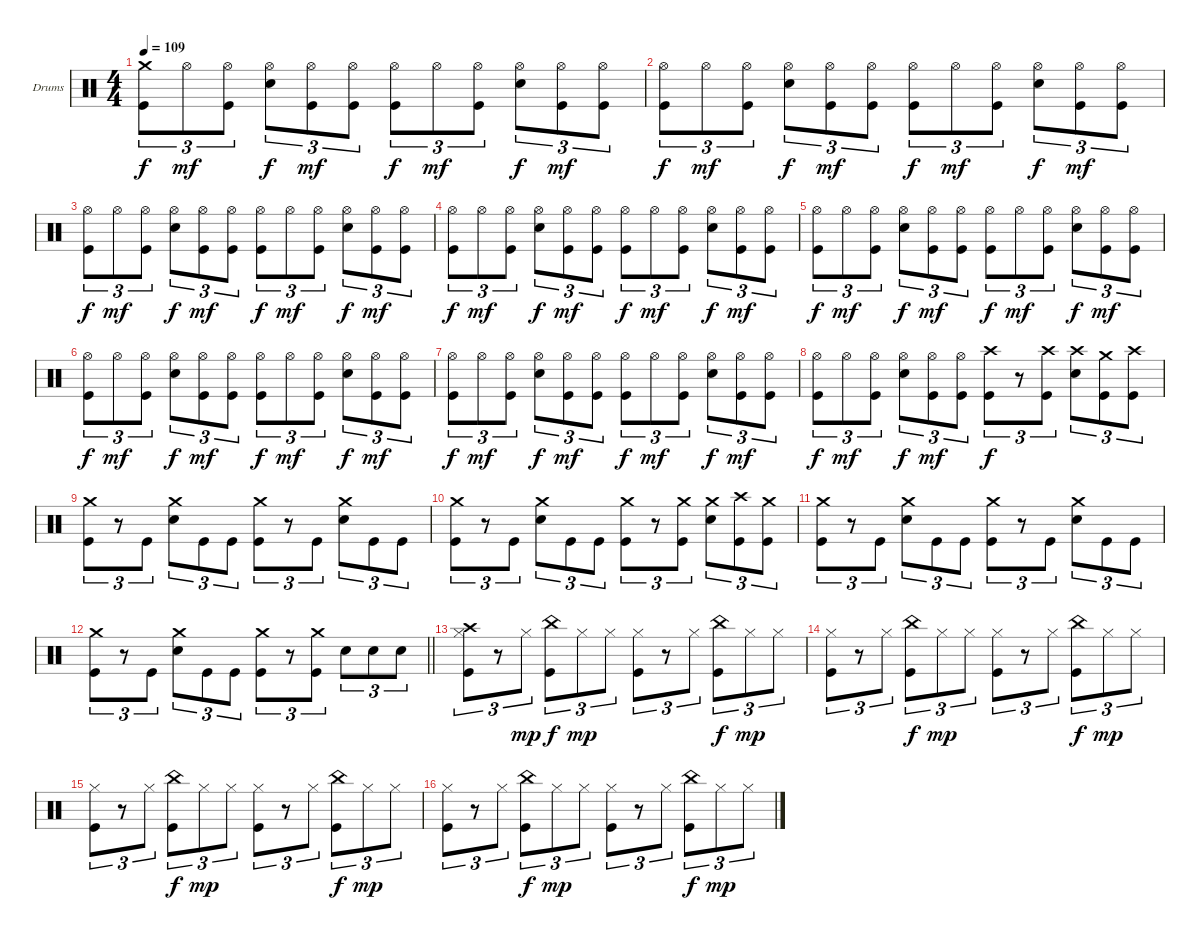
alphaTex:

\bracketExtendMode groupsimilarinstruments
\firstSystemTrackNameOrientation horizontal
\otherSystemsTrackNameOrientation horizontal
\track ("Drumkit (Christoph)" "Drums") {instrument percussion}
\staff {score}
\articulation defaults
\ts (4 4)
\tempo 109
\clef neutral
\ks c
("Crash medium (hit)" "Kick (hit)").8{tu (3 2) dy f} "Hi-Hat (open)".8{tu (3 2) dy mf} ("Hi-Hat (open)" "Kick (hit)").8{tu (3 2)} ("Hi-Hat (open)" "Snare (hit) 2").8{tu (3 2) dy f} ("Hi-Hat (open)" "Kick (hit)").8{tu (3 2) dy mf} ("Hi-Hat (open)" "Kick (hit)").8{tu (3 2)} ("Hi-Hat (open)" "Kick (hit)").8{tu (3 2) dy f} "Hi-Hat (open)".8{tu (3 2) dy mf} ("Hi-Hat (open)" "Kick (hit)").8{tu (3 2)} ("Hi-Hat (open)" "Snare (hit) 2").8{tu (3 2) dy f} ("Hi-Hat (open)" "Kick (hit)").8{tu (3 2) dy mf} ("Hi-Hat (open)" "Kick (hit)").8{tu (3 2)} |
("Hi-Hat (open)" "Kick (hit)").8{tu (3 2) dy f} "Hi-Hat (open)".8{tu (3 2) dy mf} ("Hi-Hat (open)" "Kick (hit)").8{tu (3 2)} ("Hi-Hat (open)" "Snare (hit) 2").8{tu (3 2) dy f} ("Hi-Hat (open)" "Kick (hit)").8{tu (3 2) dy mf} ("Hi-Hat (open)" "Kick (hit)").8{tu (3 2)} ("Hi-Hat (open)" "Kick (hit)").8{tu (3 2) dy f} "Hi-Hat (open)".8{tu (3 2) dy mf} ("Hi-Hat (open)" "Kick (hit)").8{tu (3 2)} ("Hi-Hat (open)" "Snare (hit) 2").8{tu (3 2) dy f} ("Hi-Hat (open)" "Kick (hit)").8{tu (3 2) dy mf} ("Hi-Hat (open)" "Kick (hit)").8{tu (3 2)} |
("Hi-Hat (open)" "Kick (hit)").8{tu (3 2) dy f} "Hi-Hat (open)".8{tu (3 2) dy mf} ("Hi-Hat (open)" "Kick (hit)").8{tu (3 2)} ("Hi-Hat (open)" "Snare (hit) 2").8{tu (3 2) dy f} ("Hi-Hat (open)" "Kick (hit)").8{tu (3 2) dy mf} ("Hi-Hat (open)" "Kick (hit)").8{tu (3 2)} ("Hi-Hat (open)" "Kick (hit)").8{tu (3 2) dy f} "Hi-Hat (open)".8{tu (3 2) dy mf} ("Hi-Hat (open)" "Kick (hit)").8{tu (3 2)} ("Hi-Hat (open)" "Snare (hit) 2").8{tu (3 2) dy f} ("Hi-Hat (open)" "Kick (hit)").8{tu (3 2) dy mf} ("Hi-Hat (open)" "Kick (hit)").8{tu (3 2)} |
("Hi-Hat (open)" "Kick (hit)").8{tu (3 2) dy f} "Hi-Hat (open)".8{tu (3 2) dy mf} ("Hi-Hat (open)" "Kick (hit)").8{tu (3 2)} ("Hi-Hat (open)" "Snare (hit) 2").8{tu (3 2) dy f} ("Hi-Hat (open)" "Kick (hit)").8{tu (3 2) dy mf} ("Hi-Hat (open)" "Kick (hit)").8{tu (3 2)} ("Hi-Hat (open)" "Kick (hit)").8{tu (3 2) dy f} "Hi-Hat (open)".8{tu (3 2) dy mf} ("Hi-Hat (open)" "Kick (hit)").8{tu (3 2)} ("Hi-Hat (open)" "Snare (hit) 2").8{tu (3 2) dy f} ("Hi-Hat (open)" "Kick (hit)").8{tu (3 2) dy mf} ("Hi-Hat (open)" "Kick (hit)").8{tu (3 2)} |
("Hi-Hat (open)" "Kick (hit)").8{tu (3 2) dy f} "Hi-Hat (open)".8{tu (3 2) dy mf} ("Hi-Hat (open)" "Kick (hit)").8{tu (3 2)} ("Hi-Hat (open)" "Snare (hit) 2").8{tu (3 2) dy f} ("Hi-Hat (open)" "Kick (hit)").8{tu (3 2) dy mf} ("Hi-Hat (open)" "Kick (hit)").8{tu (3 2)} ("Hi-Hat (open)" "Kick (hit)").8{tu (3 2) dy f} "Hi-Hat (open)".8{tu (3 2) dy mf} ("Hi-Hat (open)" "Kick (hit)").8{tu (3 2)} ("Hi-Hat (open)" "Snare (hit) 2").8{tu (3 2) dy f} ("Hi-Hat (open)" "Kick (hit)").8{tu (3 2) dy mf} ("Hi-Hat (open)" "Kick (hit)").8{tu (3 2)} |
("Hi-Hat (open)" "Kick (hit)").8{tu (3 2) dy f} "Hi-Hat (open)".8{tu (3 2) dy mf} ("Hi-Hat (open)" "Kick (hit)").8{tu (3 2)} ("Hi-Hat (open)" "Snare (hit) 2").8{tu (3 2) dy f} ("Hi-Hat (open)" "Kick (hit)").8{tu (3 2) dy mf} ("Hi-Hat (open)" "Kick (hit)").8{tu (3 2)} ("Hi-Hat (open)" "Kick (hit)").8{tu (3 2) dy f} "Hi-Hat (open)".8{tu (3 2) dy mf} ("Hi-Hat (open)" "Kick (hit)").8{tu (3 2)} ("Hi-Hat (open)" "Snare (hit) 2").8{tu (3 2) dy f} ("Hi-Hat (open)" "Kick (hit)").8{tu (3 2) dy mf} ("Hi-Hat (open)" "Kick (hit)").8{tu (3 2)} |
("Hi-Hat (open)" "Kick (hit)").8{tu (3 2) dy f} "Hi-Hat (open)".8{tu (3 2) dy mf} ("Hi-Hat (open)" "Kick (hit)").8{tu (3 2)} ("Hi-Hat (open)" "Snare (hit) 2").8{tu (3 2) dy f} ("Hi-Hat (open)" "Kick (hit)").8{tu (3 2) dy mf} ("Hi-Hat (open)" "Kick (hit)").8{tu (3 2)} ("Hi-Hat (open)" "Kick (hit)").8{tu (3 2) dy f} "Hi-Hat (open)".8{tu (3 2) dy mf} ("Hi-Hat (open)" "Kick (hit)").8{tu (3 2)} ("Hi-Hat (open)" "Snare (hit) 2").8{tu (3 2) dy f} ("Hi-Hat (open)" "Kick (hit)").8{tu (3 2) dy mf} ("Hi-Hat (open)" "Kick (hit)").8{tu (3 2)} |
("Hi-Hat (open)" "Kick (hit)").8{tu (3 2) dy f} "Hi-Hat (open)".8{tu (3 2) dy mf} ("Hi-Hat (open)" "Kick (hit)").8{tu (3 2)} ("Hi-Hat (open)" "Snare (hit) 2").8{tu (3 2) dy f} ("Hi-Hat (open)" "Kick (hit)").8{tu (3 2) dy mf} ("Hi-Hat (open)" "Kick (hit)").8{tu (3 2)} ("Crash high (hit)" "Kick (hit)").8{tu (3 2) dy f} r.8{tu (3 2)} ("Crash high (hit)" "Kick (hit)").8{tu (3 2)} ("Crash high (hit)" "Snare (hit) 2").8{tu (3 2)} ("Crash medium (hit)" "Kick (hit)").8{tu (3 2)} ("Crash high (hit)" "Kick (hit)").8{tu (3 2)} |
("Crash medium (hit)" "Kick (hit)").8{tu (3 2)} r.8{tu (3 2)} "Kick (hit)".8{tu (3 2)} ("Crash medium (hit)" "Snare (hit) 2").8{tu (3 2)} "Kick (hit)".8{tu (3 2)} "Kick (hit)".8{tu (3 2)} ("Crash medium (hit)" "Kick (hit)").8{tu (3 2)} r.8{tu (3 2)} "Kick (hit)".8{tu (3 2)} ("Crash medium (hit)" "Snare (hit) 2").8{tu (3 2)} "Kick (hit)".8{tu (3 2)} "Kick (hit)".8{tu (3 2)} |
("Crash medium (hit)" "Kick (hit)").8{tu (3 2)} r.8{tu (3 2)} "Kick (hit)".8{tu (3 2)} ("Crash medium (hit)" "Snare (hit) 2").8{tu (3 2)} "Kick (hit)".8{tu (3 2)} "Kick (hit)".8{tu (3 2)} ("Crash medium (hit)" "Kick (hit)").8{tu (3 2)} r.8{tu (3 2)} ("Crash medium (hit)" "Kick (hit)").8{tu (3 2)} ("Crash medium (hit)" "Snare (hit) 2").8{tu (3 2)} ("Crash high (hit)" "Kick (hit)").8{tu (3 2)} ("Crash medium (hit)" "Kick (hit)").8{tu (3 2)} |
("Crash medium (hit)" "Kick (hit)").8{tu (3 2)} r.8{tu (3 2)} "Kick (hit)".8{tu (3 2)} ("Crash medium (hit)" "Snare (hit) 2").8{tu (3 2)} "Kick (hit)".8{tu (3 2)} "Kick (hit)".8{tu (3 2)} ("Crash medium (hit)" "Kick (hit)").8{tu (3 2)} r.8{tu (3 2)} "Kick (hit)".8{tu (3 2)} ("Crash medium (hit)" "Snare (hit) 2").8{tu (3 2)} "Kick (hit)".8{tu (3 2)} "Kick (hit)".8{tu (3 2)} |
\barLineRight lightlight
("Crash medium (hit)" "Kick (hit)").8{tu (3 2)} r.8{tu (3 2)} "Kick (hit)".8{tu (3 2)} ("Crash medium (hit)" "Snare (hit) 2").8{tu (3 2)} "Kick (hit)".8{tu (3 2)} "Kick (hit)".8{tu (3 2)} ("Crash medium (hit)" "Kick (hit)").8{tu (3 2)} r.8{tu (3 2)} ("Crash medium (hit)" "Kick (hit)").8{tu (3 2)} "Snare (hit) 2".8{tu (3 2)} "Snare (hit) 2".8{tu (3 2)} "Snare (hit) 2".8{tu (3 2)} |
("Crash high (hit)" "Hi-Hat (closed)" "Kick (hit)").8{tu (3 2)} r.8{tu (3 2)} "Hi-Hat (closed)".8{tu (3 2) dy mp} ("China (hit)" "Kick (hit)").8{tu (3 2) dy f} "Hi-Hat (closed)".8{tu (3 2) dy mp} "Hi-Hat (closed)".8{tu (3 2)} ("Hi-Hat (closed)" "Kick (hit)").8{tu (3 2)} r.8{tu (3 2)} "Hi-Hat (closed)".8{tu (3 2)} ("China (hit)" "Kick (hit)").8{tu (3 2) dy f} "Hi-Hat (closed)".8{tu (3 2) dy mp} "Hi-Hat (closed)".8{tu (3 2)} |
("Hi-Hat (closed)" "Kick (hit)").8{tu (3 2)} r.8{tu (3 2)} "Hi-Hat (closed)".8{tu (3 2)} ("China (hit)" "Kick (hit)").8{tu (3 2) dy f} "Hi-Hat (closed)".8{tu (3 2) dy mp} "Hi-Hat (closed)".8{tu (3 2)} ("Hi-Hat (closed)" "Kick (hit)").8{tu (3 2)} r.8{tu (3 2)} "Hi-Hat (closed)".8{tu (3 2)} ("China (hit)" "Kick (hit)").8{tu (3 2) dy f} "Hi-Hat (closed)".8{tu (3 2) dy mp} "Hi-Hat (closed)".8{tu (3 2)} |
("Hi-Hat (closed)" "Kick (hit)").8{tu (3 2)} r.8{tu (3 2)} "Hi-Hat (closed)".8{tu (3 2)} ("China (hit)" "Kick (hit)").8{tu (3 2) dy f} "Hi-Hat (closed)".8{tu (3 2) dy mp} "Hi-Hat (closed)".8{tu (3 2)} ("Hi-Hat (closed)" "Kick (hit)").8{tu (3 2)} r.8{tu (3 2)} "Hi-Hat (closed)".8{tu (3 2)} ("China (hit)" "Kick (hit)").8{tu (3 2) dy f} "Hi-Hat (closed)".8{tu (3 2) dy mp} "Hi-Hat (closed)".8{tu (3 2)} |
("Hi-Hat (closed)" "Kick (hit)").8{tu (3 2)} r.8{tu (3 2)} "Hi-Hat (closed)".8{tu (3 2)} ("China (hit)" "Kick (hit)").8{tu (3 2) dy f} "Hi-Hat (closed)".8{tu (3 2) dy mp} "Hi-Hat (closed)".8{tu (3 2)} ("Hi-Hat (closed)" "Kick (hit)").8{tu (3 2)} r.8{tu (3 2)} "Hi-Hat (closed)".8{tu (3 2)} ("China (hit)" "Kick (hit)").8{tu (3 2) dy f} "Hi-Hat (closed)".8{tu (3 2) dy mp} "Hi-Hat (closed)".8{tu (3 2)}
